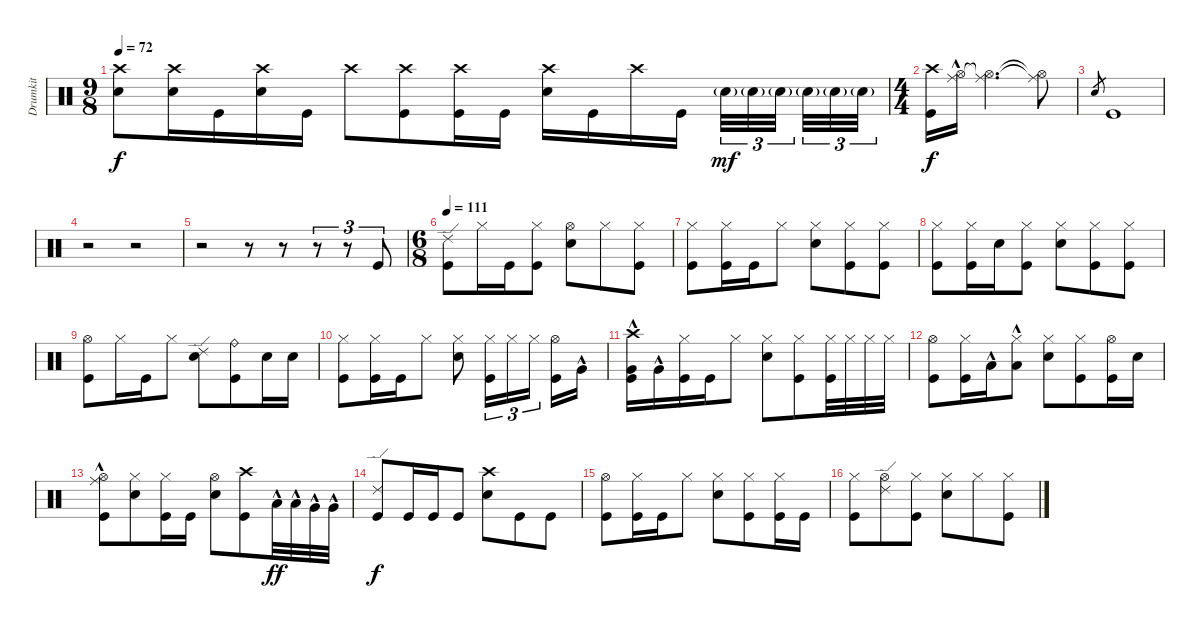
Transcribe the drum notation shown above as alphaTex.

\track ("Drumkit" "Drumkit") {instrument percussion}
\staff {score}
\articulation defaults
\ts (9 8)
\tempo 72
\clef neutral
\ks c
("Crash high (hit)" "Snare (hit) 2").8{dy f} ("Crash high (hit)" "Snare (hit) 2").16 "Kick (hit)".16 ("Snare (hit) 2" "Crash high (hit)").16 "Kick (hit)".16 "Crash high (hit)".8 ("Kick (hit)" "Crash high (hit)").8 ("Kick (hit)" "Crash high (hit)").16 "Kick (hit)".16 ("Snare (hit) 2" "Crash high (hit)").16 "Kick (hit)".16 "Crash high (hit)".16 "Kick (hit)".16 "Snare (hit) 2"{g}.32{tu (3 2) dy mf} "Snare (hit) 2"{g}.32{tu (3 2)} "Snare (hit) 2"{g}.32{tu (3 2)} "Snare (hit) 2"{g}.32{tu (3 2)} "Snare (hit) 2"{g}.32{tu (3 2)} "Snare (hit) 2"{g}.32{tu (3 2)} |
\ts (4 4)
("Crash high (hit)" "Kick (hit)").16{dy f} ("Hi-Hat (open)"{hac} "Ride (middle)"{hac}).16 ("Ride (middle)"{t} "Hi-Hat (open)"{t}).2{d} ("Ride (middle)"{t} "Hi-Hat (open)"{t}).8 |
"Snare (hit)".8{gr} "Kick (hit)".1 |
r.2 r.2 |
r.2 r.8 r.8 r.8{tu (3 2)} r.8{tu (3 2)} "Kick (hit)".8{tu (3 2)} |
\ts (6 8)
\tempo 111
("Kick (hit)" "Ride (edge) 2").8 "Hi-Hat (closed)".16 "Kick (hit)".16 ("Hi-Hat (closed)" "Kick (hit)").8 ("Snare (hit) 2" "Hi-Hat (open)").8 "Hi-Hat (closed)".8 ("Kick (hit)" "Hi-Hat (closed)").8 |
("Kick (hit)" "Hi-Hat (closed)").8 ("Kick (hit)" "Hi-Hat (closed)").16 "Kick (hit)".16 "Hi-Hat (closed)".8 ("Hi-Hat (closed)" "Snare (hit) 2").8 ("Hi-Hat (closed)" "Kick (hit)").8 ("Hi-Hat (closed)" "Kick (hit)").8 |
("Kick (hit)" "Hi-Hat (closed)").8 ("Kick (hit)" "Hi-Hat (closed)").16 "Snare (hit) 2".16 ("Hi-Hat (closed)" "Kick (hit)").8 ("Snare (hit) 2" "Hi-Hat (closed)").8 ("Hi-Hat (closed)" "Kick (hit)").8 ("Hi-Hat (closed)" "Kick (hit)").8 |
("Hi-Hat (open)" "Kick (hit)").8 "Hi-Hat (closed)".16 "Kick (hit)".16 "Hi-Hat (closed)".8 ("Snare (hit) 2" "Ride (edge) 2").8 ("Kick (hit)" "Ride (bell)").8 "Snare (hit) 2".16 "Snare (hit) 2".16 |
("Kick (hit)" "Hi-Hat (closed)").8 ("Kick (hit)" "Hi-Hat (closed)").16 "Kick (hit)".16 "Hi-Hat (closed)".8 ("Hi-Hat (closed)" "Snare (hit) 2").8 ("Hi-Hat (closed)" "Kick (hit)").16{tu (3 2)} "Hi-Hat (closed)".16{tu (3 2)} "Hi-Hat (closed)".16{tu (3 2)} ("Hi-Hat (open)" "Kick (hit)").16 "Very Low Tom (hit)"{hac}.16 |
("Kick (hit)" "Very Low Tom (hit)"{hac} "Crash high (hit)").16 "Very Low Tom (hit)"{hac}.16 ("Kick (hit)" "Hi-Hat (closed)").16 "Kick (hit)".16 "Hi-Hat (closed)".8 ("Hi-Hat (closed)" "Snare (hit) 2").8 ("Hi-Hat (closed)" "Kick (hit)").8 ("Hi-Hat (closed)" "Kick (hit)").32 "Hi-Hat (closed)".32 "Hi-Hat (closed)".32 "Hi-Hat (closed)".32 |
("Kick (hit)" "Hi-Hat (open)").8 ("Kick (hit)" "Hi-Hat (closed)").16 "Low Tom (hit)"{hac}.16 ("Hi-Hat (closed)" "Low Tom (hit)"{hac}).8 ("Hi-Hat (closed)" "Snare (hit) 2").8 ("Hi-Hat (closed)" "Kick (hit)").8 ("Hi-Hat (open)" "Kick (hit)").16 "Snare (hit) 2".16 |
("Kick (hit)" "Hi-Hat (open)"{hac} "Ride (middle)"{hac}).8 ("Snare (hit) 2" "Hi-Hat (closed)").8 ("Kick (hit)" "Hi-Hat (closed)").16 "Kick (hit)".16 ("Snare (hit) 2" "Hi-Hat (open)").8 ("Kick (hit)" "Crash high (hit)").8 "Low Tom (hit)"{hac}.32{dy ff} "Low Tom (hit)"{hac}.32 "Very Low Tom (hit)"{hac}.32 "Very Low Tom (hit)"{hac}.32 |
("Ride (edge) 2" "Kick (hit)").8{dy f} "Kick (hit)".16 "Kick (hit)".16 "Kick (hit)".8 ("Snare (hit) 2" "Crash high (hit)").8 "Kick (hit)".8 "Kick (hit)".8 |
("Kick (hit)" "Hi-Hat (open)").8 ("Kick (hit)" "Hi-Hat (closed)").16 "Kick (hit)".16 "Hi-Hat (closed)".8 ("Snare (hit) 2" "Hi-Hat (closed)").8 ("Kick (hit)" "Hi-Hat (closed)").8 ("Kick (hit)" "Hi-Hat (closed)").16 "Kick (hit)".16 |
("Kick (hit)" "Hi-Hat (closed)").8 ("Hi-Hat (open)" "Ride (edge) 2").8 ("Kick (hit)" "Hi-Hat (closed)").8 ("Snare (hit) 2" "Hi-Hat (closed)").8 "Hi-Hat (closed)".8 ("Kick (hit)" "Hi-Hat (closed)").8
